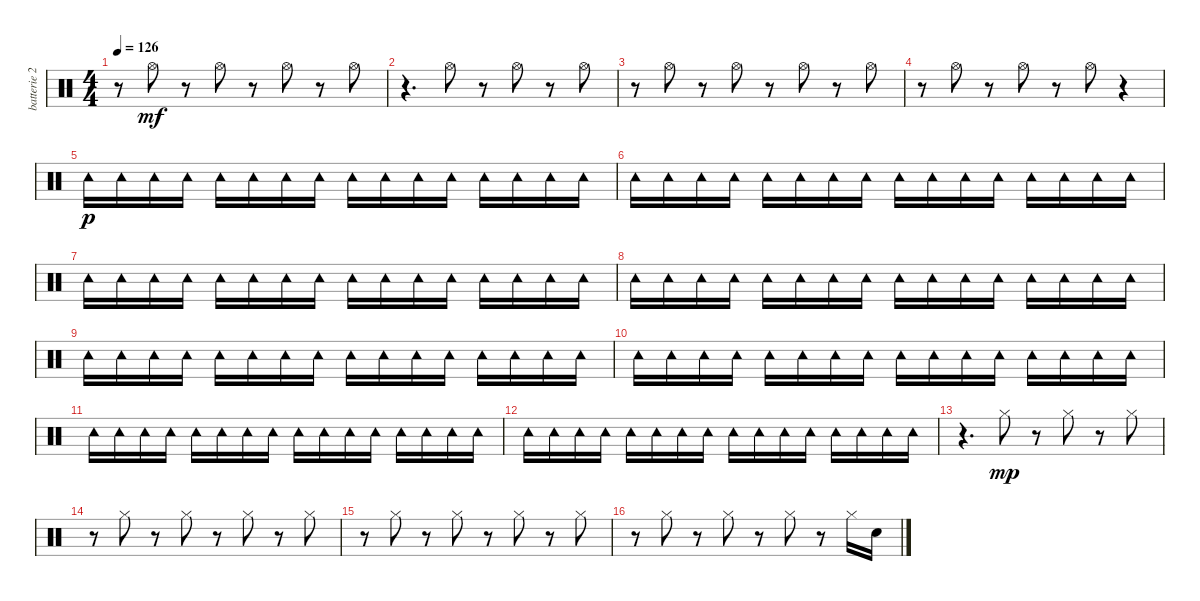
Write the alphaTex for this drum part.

\track ("batterie 2" "batterie 2") {instrument percussion}
\staff {score}
\articulation defaults
\ts (4 4)
\tempo 126
\clef neutral
\ks c
r.8{dy mf} "Hi-Hat (open)".8 r.8 "Hi-Hat (open)".8 r.8 "Hi-Hat (open)".8 r.8 "Hi-Hat (open)".8 |
r.4{d} "Hi-Hat (open)".8 r.8 "Hi-Hat (open)".8 r.8 "Hi-Hat (open)".8 |
r.8 "Hi-Hat (open)".8 r.8 "Hi-Hat (open)".8 r.8 "Hi-Hat (open)".8 r.8 "Hi-Hat (open)".8 |
r.8 "Hi-Hat (open)".8 r.8 "Hi-Hat (open)".8 r.8 "Hi-Hat (open)".8 r.4 |
"Tambourine (hit)".16{dy p} "Tambourine (hit)".16 "Tambourine (hit)".16 "Tambourine (hit)".16 "Tambourine (hit)".16 "Tambourine (hit)".16 "Tambourine (hit)".16 "Tambourine (hit)".16 "Tambourine (hit)".16 "Tambourine (hit)".16 "Tambourine (hit)".16 "Tambourine (hit)".16 "Tambourine (hit)".16 "Tambourine (hit)".16 "Tambourine (hit)".16 "Tambourine (hit)".16 |
"Tambourine (hit)".16 "Tambourine (hit)".16 "Tambourine (hit)".16 "Tambourine (hit)".16 "Tambourine (hit)".16 "Tambourine (hit)".16 "Tambourine (hit)".16 "Tambourine (hit)".16 "Tambourine (hit)".16 "Tambourine (hit)".16 "Tambourine (hit)".16 "Tambourine (hit)".16 "Tambourine (hit)".16 "Tambourine (hit)".16 "Tambourine (hit)".16 "Tambourine (hit)".16 |
"Tambourine (hit)".16 "Tambourine (hit)".16 "Tambourine (hit)".16 "Tambourine (hit)".16 "Tambourine (hit)".16 "Tambourine (hit)".16 "Tambourine (hit)".16 "Tambourine (hit)".16 "Tambourine (hit)".16 "Tambourine (hit)".16 "Tambourine (hit)".16 "Tambourine (hit)".16 "Tambourine (hit)".16 "Tambourine (hit)".16 "Tambourine (hit)".16 "Tambourine (hit)".16 |
"Tambourine (hit)".16 "Tambourine (hit)".16 "Tambourine (hit)".16 "Tambourine (hit)".16 "Tambourine (hit)".16 "Tambourine (hit)".16 "Tambourine (hit)".16 "Tambourine (hit)".16 "Tambourine (hit)".16 "Tambourine (hit)".16 "Tambourine (hit)".16 "Tambourine (hit)".16 "Tambourine (hit)".16 "Tambourine (hit)".16 "Tambourine (hit)".16 "Tambourine (hit)".16 |
"Tambourine (hit)".16 "Tambourine (hit)".16 "Tambourine (hit)".16 "Tambourine (hit)".16 "Tambourine (hit)".16 "Tambourine (hit)".16 "Tambourine (hit)".16 "Tambourine (hit)".16 "Tambourine (hit)".16 "Tambourine (hit)".16 "Tambourine (hit)".16 "Tambourine (hit)".16 "Tambourine (hit)".16 "Tambourine (hit)".16 "Tambourine (hit)".16 "Tambourine (hit)".16 |
"Tambourine (hit)".16 "Tambourine (hit)".16 "Tambourine (hit)".16 "Tambourine (hit)".16 "Tambourine (hit)".16 "Tambourine (hit)".16 "Tambourine (hit)".16 "Tambourine (hit)".16 "Tambourine (hit)".16 "Tambourine (hit)".16 "Tambourine (hit)".16 "Tambourine (hit)".16 "Tambourine (hit)".16 "Tambourine (hit)".16 "Tambourine (hit)".16 "Tambourine (hit)".16 |
"Tambourine (hit)".16 "Tambourine (hit)".16 "Tambourine (hit)".16 "Tambourine (hit)".16 "Tambourine (hit)".16 "Tambourine (hit)".16 "Tambourine (hit)".16 "Tambourine (hit)".16 "Tambourine (hit)".16 "Tambourine (hit)".16 "Tambourine (hit)".16 "Tambourine (hit)".16 "Tambourine (hit)".16 "Tambourine (hit)".16 "Tambourine (hit)".16 "Tambourine (hit)".16 |
"Tambourine (hit)".16 "Tambourine (hit)".16 "Tambourine (hit)".16 "Tambourine (hit)".16 "Tambourine (hit)".16 "Tambourine (hit)".16 "Tambourine (hit)".16 "Tambourine (hit)".16 "Tambourine (hit)".16 "Tambourine (hit)".16 "Tambourine (hit)".16 "Tambourine (hit)".16 "Tambourine (hit)".16 "Tambourine (hit)".16 "Tambourine (hit)".16 "Tambourine (hit)".16 |
r.4{d} "Hi-Hat (closed)".8{dy mp} r.8 "Hi-Hat (closed)".8 r.8 "Hi-Hat (closed)".8 |
r.8 "Hi-Hat (closed)".8 r.8 "Hi-Hat (closed)".8 r.8 "Hi-Hat (closed)".8 r.8 "Hi-Hat (closed)".8 |
r.8 "Hi-Hat (closed)".8 r.8 "Hi-Hat (closed)".8 r.8 "Hi-Hat (closed)".8 r.8 "Hi-Hat (closed)".8 |
r.8 "Hi-Hat (closed)".8 r.8 "Hi-Hat (closed)".8 r.8 "Hi-Hat (closed)".8 r.8 "Hi-Hat (closed)".16 "Electric Snare (hit)".16
